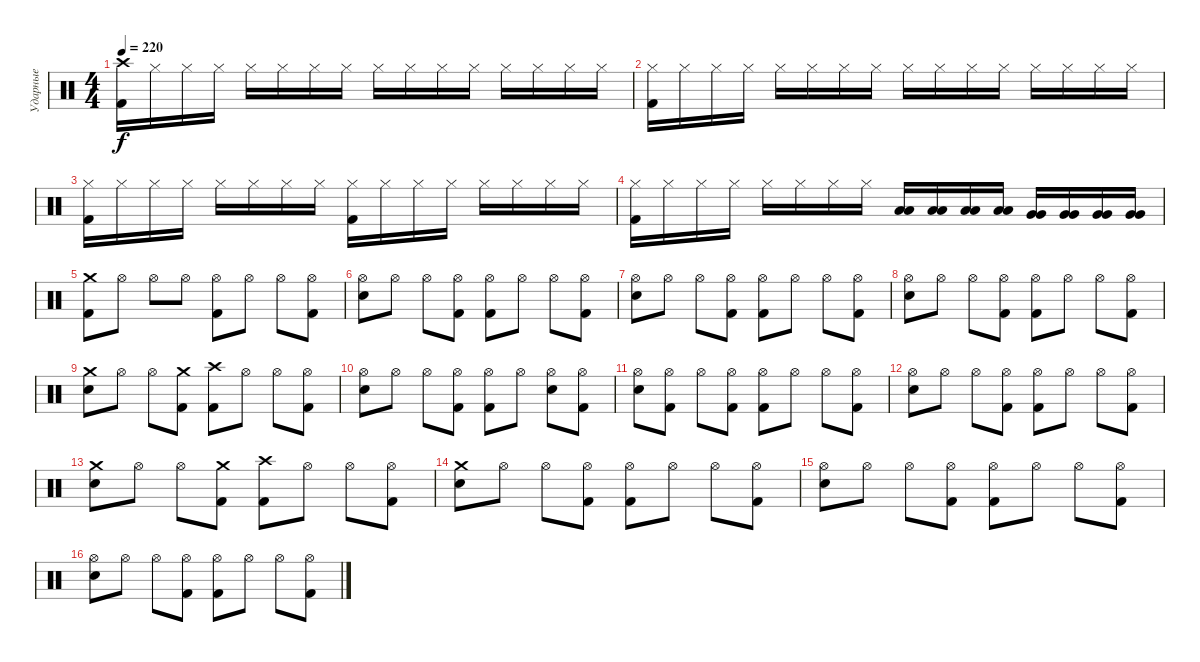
\track ("Ударные" "Ударные") {instrument percussion}
\staff {score}
\articulation defaults
\ts (4 4)
\tempo 220
\clef neutral
\ks c
("Crash high (hit)" "Kick (hit) 2").16{dy f} "Hi-Hat (closed)".16 "Hi-Hat (closed)".16 "Hi-Hat (closed)".16 "Hi-Hat (closed)".16 "Hi-Hat (closed)".16 "Hi-Hat (closed)".16 "Hi-Hat (closed)".16 "Hi-Hat (closed)".16 "Hi-Hat (closed)".16 "Hi-Hat (closed)".16 "Hi-Hat (closed)".16 "Hi-Hat (closed)".16 "Hi-Hat (closed)".16 "Hi-Hat (closed)".16 "Hi-Hat (closed)".16 |
("Hi-Hat (closed)" "Kick (hit) 2").16 "Hi-Hat (closed)".16 "Hi-Hat (closed)".16 "Hi-Hat (closed)".16 "Hi-Hat (closed)".16 "Hi-Hat (closed)".16 "Hi-Hat (closed)".16 "Hi-Hat (closed)".16 "Hi-Hat (closed)".16 "Hi-Hat (closed)".16 "Hi-Hat (closed)".16 "Hi-Hat (closed)".16 "Hi-Hat (closed)".16 "Hi-Hat (closed)".16 "Hi-Hat (closed)".16 "Hi-Hat (closed)".16 |
("Hi-Hat (closed)" "Kick (hit) 2").16 "Hi-Hat (closed)".16 "Hi-Hat (closed)".16 "Hi-Hat (closed)".16 "Hi-Hat (closed)".16 "Hi-Hat (closed)".16 "Hi-Hat (closed)".16 "Hi-Hat (closed)".16 ("Hi-Hat (closed)" "Kick (hit) 2").16 "Hi-Hat (closed)".16 "Hi-Hat (closed)".16 "Hi-Hat (closed)".16 "Hi-Hat (closed)".16 "Hi-Hat (closed)".16 "Hi-Hat (closed)".16 "Hi-Hat (closed)".16 |
("Hi-Hat (closed)" "Kick (hit) 2").16 "Hi-Hat (closed)".16 "Hi-Hat (closed)".16 "Hi-Hat (closed)".16 "Hi-Hat (closed)".16 "Hi-Hat (closed)".16 "Hi-Hat (closed)".16 "Hi-Hat (closed)".16 ("Low Tom (hit)" "Low Tom (hit)").16 ("Low Tom (hit)" "Low Tom (hit)").16 ("Low Tom (hit)" "Low Tom (hit)").16 ("Low Tom (hit)" "Low Tom (hit)").16 ("Very Low Tom (hit)" "Very Low Tom (hit)").16 ("Very Low Tom (hit)" "Very Low Tom (hit)").16 ("Very Low Tom (hit)" "Very Low Tom (hit)").16 ("Very Low Tom (hit)" "Very Low Tom (hit)").16 |
\section ("" "")
("Crash medium (hit)" "Kick (hit) 2").8 "Hi-Hat (open)".8 "Hi-Hat (open)".8 "Hi-Hat (open)".8 ("Hi-Hat (open)" "Kick (hit) 2").8 "Hi-Hat (open)".8 "Hi-Hat (open)".8 ("Hi-Hat (open)" "Kick (hit) 2").8 |
("Hi-Hat (open)" "Electric Snare (hit)").8 "Hi-Hat (open)".8 "Hi-Hat (open)".8 ("Hi-Hat (open)" "Kick (hit) 2").8 ("Hi-Hat (open)" "Kick (hit) 2").8 "Hi-Hat (open)".8 "Hi-Hat (open)".8 ("Hi-Hat (open)" "Kick (hit) 2").8 |
("Hi-Hat (open)" "Electric Snare (hit)").8 "Hi-Hat (open)".8 "Hi-Hat (open)".8 ("Hi-Hat (open)" "Kick (hit) 2").8 ("Hi-Hat (open)" "Kick (hit) 2").8 "Hi-Hat (open)".8 "Hi-Hat (open)".8 ("Hi-Hat (open)" "Kick (hit) 2").8 |
("Hi-Hat (open)" "Electric Snare (hit)").8 "Hi-Hat (open)".8 "Hi-Hat (open)".8 ("Hi-Hat (open)" "Kick (hit) 2").8 ("Hi-Hat (open)" "Kick (hit) 2").8 "Hi-Hat (open)".8 "Hi-Hat (open)".8 ("Hi-Hat (open)" "Kick (hit) 2").8 |
("Crash medium (hit)" "Electric Snare (hit)").8 "Hi-Hat (open)".8 "Hi-Hat (open)".8 ("Crash medium (hit)" "Kick (hit) 2").8 ("Crash high (hit)" "Kick (hit) 2").8 "Hi-Hat (open)".8 "Hi-Hat (open)".8 ("Hi-Hat (open)" "Kick (hit) 2").8 |
("Hi-Hat (open)" "Electric Snare (hit)").8 "Hi-Hat (open)".8 "Hi-Hat (open)".8 ("Hi-Hat (open)" "Kick (hit) 2").8 ("Hi-Hat (open)" "Kick (hit) 2").8 "Hi-Hat (open)".8 ("Hi-Hat (open)" "Electric Snare (hit)").8 ("Hi-Hat (open)" "Kick (hit) 2").8 |
("Hi-Hat (open)" "Electric Snare (hit)").8 ("Hi-Hat (open)" "Kick (hit) 2").8 "Hi-Hat (open)".8 ("Hi-Hat (open)" "Kick (hit) 2").8 ("Hi-Hat (open)" "Kick (hit) 2").8 "Hi-Hat (open)".8 "Hi-Hat (open)".8 ("Hi-Hat (open)" "Kick (hit) 2").8 |
("Hi-Hat (open)" "Electric Snare (hit)").8 "Hi-Hat (open)".8 "Hi-Hat (open)".8 ("Hi-Hat (open)" "Kick (hit) 2").8 ("Hi-Hat (open)" "Kick (hit) 2").8 "Hi-Hat (open)".8 "Hi-Hat (open)".8 ("Hi-Hat (open)" "Kick (hit) 2").8 |
("Crash medium (hit)" "Electric Snare (hit)").8 "Hi-Hat (open)".8 "Hi-Hat (open)".8 ("Crash medium (hit)" "Kick (hit) 2").8 ("Crash high (hit)" "Kick (hit) 2").8 "Hi-Hat (open)".8 "Hi-Hat (open)".8 ("Hi-Hat (open)" "Kick (hit) 2").8 |
("Crash medium (hit)" "Electric Snare (hit)").8 "Hi-Hat (open)".8 "Hi-Hat (open)".8 ("Hi-Hat (open)" "Kick (hit) 2").8 ("Hi-Hat (open)" "Kick (hit) 2").8 "Hi-Hat (open)".8 "Hi-Hat (open)".8 ("Hi-Hat (open)" "Kick (hit) 2").8 |
("Hi-Hat (open)" "Electric Snare (hit)").8 "Hi-Hat (open)".8 "Hi-Hat (open)".8 ("Hi-Hat (open)" "Kick (hit) 2").8 ("Hi-Hat (open)" "Kick (hit) 2").8 "Hi-Hat (open)".8 "Hi-Hat (open)".8 ("Hi-Hat (open)" "Kick (hit) 2").8 |
("Hi-Hat (open)" "Electric Snare (hit)").8 "Hi-Hat (open)".8 "Hi-Hat (open)".8 ("Hi-Hat (open)" "Kick (hit) 2").8 ("Hi-Hat (open)" "Kick (hit) 2").8 "Hi-Hat (open)".8 "Hi-Hat (open)".8 ("Hi-Hat (open)" "Kick (hit) 2").8
